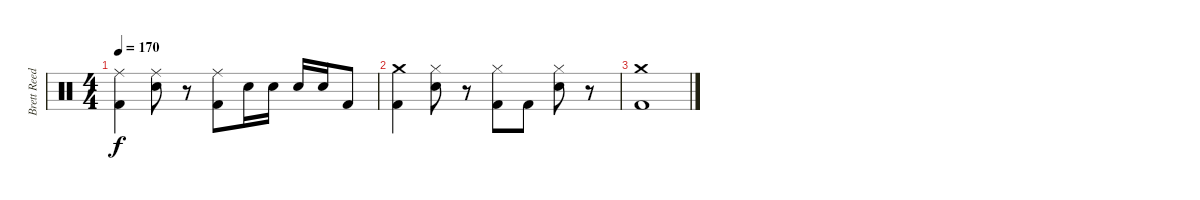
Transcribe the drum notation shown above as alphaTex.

\track ("Brett Reed" "Brett Reed") {instrument percussion}
\staff {score}
\articulation defaults
\ts (4 4)
\tempo 170
\clef neutral
\ks c
("Ride (middle)" "Kick (hit) 2").4{dy f} ("Ride (middle)" "Snare (hit) 2").8 r.8 ("Ride (middle)" "Kick (hit) 2").8 "Snare (hit) 2".16 "Snare (hit) 2".16 "Snare (hit) 2".16 "Snare (hit) 2".16 "Kick (hit) 2".8 |
("Crash medium (hit)" "Kick (hit) 2").4 ("Hi-Hat (closed)" "Snare (hit) 2").8 r.8 ("Hi-Hat (closed)" "Kick (hit) 2").8 "Kick (hit) 2".8 ("Hi-Hat (closed)" "Snare (hit) 2").8 r.8 |
("Crash medium (hit)" "Kick (hit) 2").1
